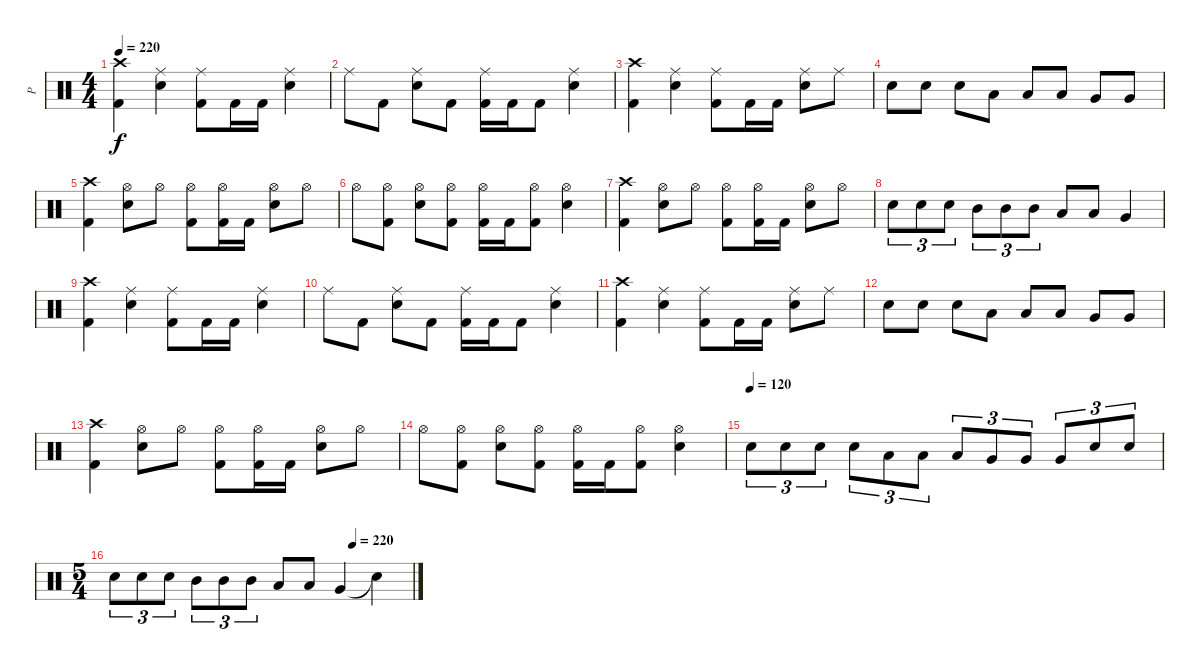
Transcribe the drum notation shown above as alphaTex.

\track ("P" "P") {instrument percussion}
\staff {score}
\articulation defaults
\ts (4 4)
\tempo 220
\clef neutral
\ks c
("Crash high (hit)" "Kick (hit) 2").4{dy f} ("Ride (middle)" "Electric Snare (hit)").4 ("Ride (middle)" "Kick (hit) 2").8 "Kick (hit) 2".16 "Kick (hit) 2".16 ("Ride (middle)" "Electric Snare (hit)").4 |
"Ride (middle)".8 "Kick (hit) 2".8 ("Ride (middle)" "Electric Snare (hit)").8 "Kick (hit) 2".8 ("Ride (middle)" "Kick (hit) 2").16 "Kick (hit) 2".16 "Kick (hit) 2".8 ("Ride (middle)" "Electric Snare (hit)").4 |
("Crash high (hit)" "Kick (hit) 2").4 ("Ride (middle)" "Electric Snare (hit)").4 ("Ride (middle)" "Kick (hit) 2").8 "Kick (hit) 2".16 "Kick (hit) 2".16 ("Ride (middle)" "Electric Snare (hit)").8 "Ride (middle)".8 |
"Electric Snare (hit)".8 "Electric Snare (hit)".8 "Electric Snare (hit)".8 "Low Tom (hit)".8 "Low Tom (hit)".8 "Low Tom (hit)".8 "Very Low Tom (hit)".8 "Very Low Tom (hit)".8 |
("Crash high (hit)" "Kick (hit) 2").4 ("Hi-Hat (open)" "Electric Snare (hit)").8 "Hi-Hat (open)".8 ("Hi-Hat (open)" "Kick (hit) 2").8 ("Hi-Hat (open)" "Kick (hit) 2").16 "Kick (hit) 2".16 ("Hi-Hat (open)" "Electric Snare (hit)").8 "Hi-Hat (open)".8 |
"Hi-Hat (open)".8 ("Hi-Hat (open)" "Kick (hit) 2").8 ("Hi-Hat (open)" "Electric Snare (hit)").8 ("Hi-Hat (open)" "Kick (hit) 2").8 ("Hi-Hat (open)" "Kick (hit) 2").16 "Kick (hit) 2".16 ("Hi-Hat (open)" "Kick (hit) 2").8 ("Hi-Hat (open)" "Electric Snare (hit)").4 |
("Crash high (hit)" "Kick (hit) 2").4 ("Hi-Hat (open)" "Electric Snare (hit)").8 "Hi-Hat (open)".8 ("Hi-Hat (open)" "Kick (hit) 2").8 ("Hi-Hat (open)" "Kick (hit) 2").16 "Kick (hit) 2".16 ("Hi-Hat (open)" "Electric Snare (hit)").8 "Hi-Hat (open)".8 |
"Electric Snare (hit)".8{tu (3 2)} "Electric Snare (hit)".8{tu (3 2)} "Electric Snare (hit)".8{tu (3 2)} "Mid Tom (hit)".8{tu (3 2)} "Mid Tom (hit)".8{tu (3 2)} "Mid Tom (hit)".8{tu (3 2)} "Low Tom (hit)".8 "Low Tom (hit)".8 "Very Low Tom (hit)".4 |
("Crash high (hit)" "Kick (hit) 2").4 ("Ride (middle)" "Electric Snare (hit)").4 ("Ride (middle)" "Kick (hit) 2").8 "Kick (hit) 2".16 "Kick (hit) 2".16 ("Ride (middle)" "Electric Snare (hit)").4 |
"Ride (middle)".8 "Kick (hit) 2".8 ("Ride (middle)" "Electric Snare (hit)").8 "Kick (hit) 2".8 ("Ride (middle)" "Kick (hit) 2").16 "Kick (hit) 2".16 "Kick (hit) 2".8 ("Ride (middle)" "Electric Snare (hit)").4 |
("Crash high (hit)" "Kick (hit) 2").4 ("Ride (middle)" "Electric Snare (hit)").4 ("Ride (middle)" "Kick (hit) 2").8 "Kick (hit) 2".16 "Kick (hit) 2".16 ("Ride (middle)" "Electric Snare (hit)").8 "Ride (middle)".8 |
"Electric Snare (hit)".8 "Electric Snare (hit)".8 "Electric Snare (hit)".8 "Low Tom (hit)".8 "Low Tom (hit)".8 "Low Tom (hit)".8 "Very Low Tom (hit)".8 "Very Low Tom (hit)".8 |
("Crash high (hit)" "Kick (hit) 2").4 ("Hi-Hat (open)" "Electric Snare (hit)").8 "Hi-Hat (open)".8 ("Hi-Hat (open)" "Kick (hit) 2").8 ("Hi-Hat (open)" "Kick (hit) 2").16 "Kick (hit) 2".16 ("Hi-Hat (open)" "Electric Snare (hit)").8 "Hi-Hat (open)".8 |
"Hi-Hat (open)".8 ("Hi-Hat (open)" "Kick (hit) 2").8 ("Hi-Hat (open)" "Electric Snare (hit)").8 ("Hi-Hat (open)" "Kick (hit) 2").8 ("Hi-Hat (open)" "Kick (hit) 2").16 "Kick (hit) 2".16 ("Hi-Hat (open)" "Kick (hit) 2").8 ("Hi-Hat (open)" "Electric Snare (hit)").4 |
\tempo (120)
"Electric Snare (hit)".8{tu (3 2)} "Electric Snare (hit)".8{tu (3 2)} "Electric Snare (hit)".8{tu (3 2)} "Electric Snare (hit)".8{tu (3 2)} "Low Tom (hit)".8{tu (3 2)} "Low Tom (hit)".8{tu (3 2)} "Low Tom (hit)".8{tu (3 2)} "Very Low Tom (hit)".8{tu (3 2)} "Very Low Tom (hit)".8{tu (3 2)} "Very Low Tom (hit)".8{tu (3 2)} "Electric Snare (hit)".8{tu (3 2)} "Electric Snare (hit)".8{tu (3 2)} |
\ts (5 4)
\tempo (220 0.8)
"Electric Snare (hit)".8{tu (3 2)} "Electric Snare (hit)".8{tu (3 2)} "Electric Snare (hit)".8{tu (3 2)} "Mid Tom (hit)".8{tu (3 2)} "Mid Tom (hit)".8{tu (3 2)} "Mid Tom (hit)".8{tu (3 2)} "Low Tom (hit)".8 "Low Tom (hit)".8 "Very Low Tom (hit)".4 "Snare (hit)"{t}.4
